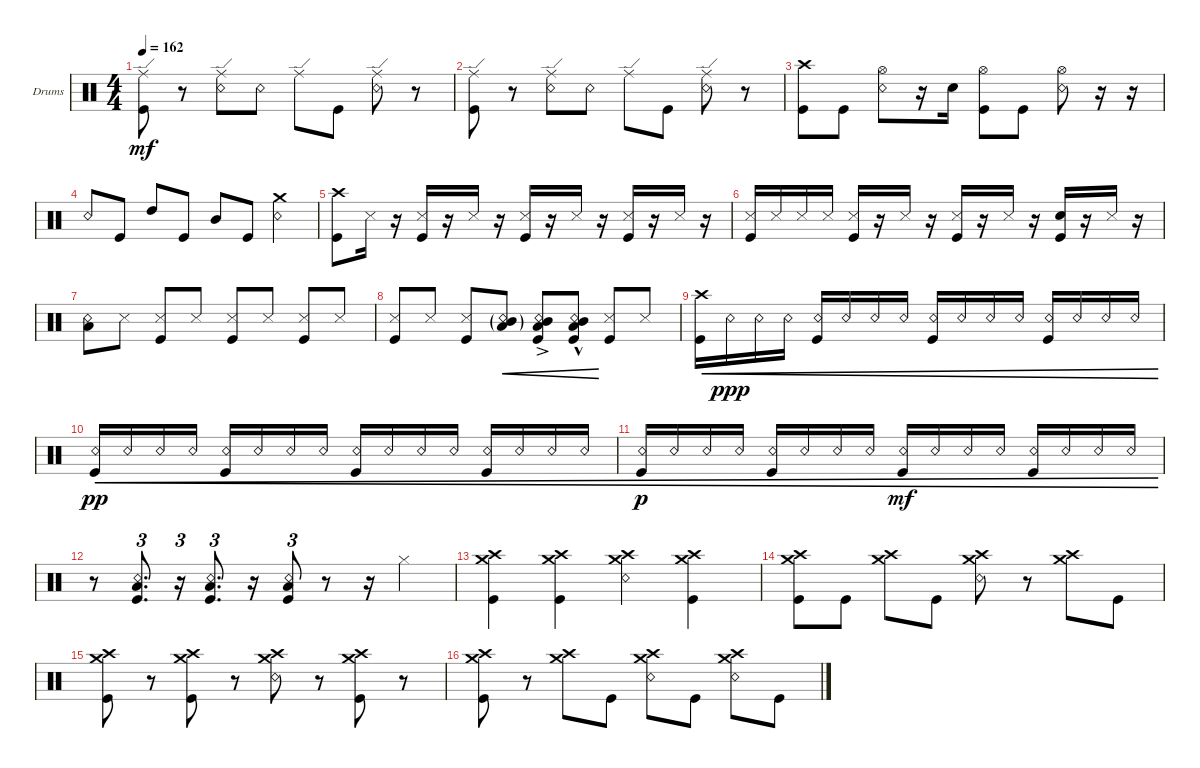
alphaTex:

\defaultSystemsLayout 4
\bracketExtendMode groupsimilarinstruments
\firstSystemTrackNameOrientation horizontal
\otherSystemsTrackNameOrientation horizontal
\track ("Drumkit" "Drums") {instrument percussion}
\staff {score}
\articulation defaults
\ts (4 4)
\tempo 162
\clef neutral
\ks c
("Ride (edge)" "Kick (hit)").8{dy mf} r.8 ("Ride (edge)" "Snare (rim shot)").8 "Snare (rim shot)".8 "Ride (edge)".8 "Kick (hit)".8 ("Snare (rim shot)" "Ride (edge)").8 r.8 |
("Ride (edge)" "Kick (hit)").8 r.8 ("Ride (edge)" "Snare (rim shot)").8 "Snare (rim shot)".8 "Ride (edge)".8 "Kick (hit)".8 ("Snare (rim shot)" "Ride (edge)").8 r.8 |
("Kick (hit)" "Crash high (hit)").8 "Kick (hit)".8 ("Snare (rim shot)" "Hi-Hat (open)").8 r.16 "Snare (hit) 2".16 ("Kick (hit)" "Hi-Hat (open)").8 "Kick (hit)".8 ("Snare (rim shot)" "Hi-Hat (open)").8 r.16 r.16 |
"Snare (rim shot)".8 "Kick (hit)".8 "High Tom (hit)".8 "Kick (hit)".8 "Mid Tom (hit)".8 "Kick (hit)".8 ("Crash medium (hit)" "Snare (rim shot)").4 |
("Kick (hit)" "Crash high (hit)").8 "Snare (side stick) 3".16 r.16 ("Snare (side stick) 3" "Kick (hit)").16 r.16 "Snare (side stick) 3".16 r.16 ("Snare (side stick) 3" "Kick (hit)").16 r.16 "Snare (side stick) 3".16 r.16 ("Snare (side stick) 3" "Kick (hit)").16 r.16 "Snare (side stick) 3".16 r.16 |
("Snare (side stick) 3" "Kick (hit)").16 "Snare (side stick) 3".16 "Snare (side stick) 3".16 "Snare (side stick) 3".16 ("Snare (side stick) 3" "Kick (hit)").16 r.16 "Snare (side stick) 3".16 r.16 ("Snare (side stick) 3" "Kick (hit)").16 r.16 "Snare (side stick) 3".16 r.16 ("Snare (hit) 2" "Kick (hit)").16 r.16 "Snare (side stick) 3".16 r.16 |
("Low Tom (hit)" "Snare (rim shot)").8 "Snare (side stick) 3".8 ("Snare (side stick) 3" "Kick (hit)").8 "Snare (side stick) 3".8 ("Snare (side stick) 3" "Kick (hit)").8 "Snare (side stick) 3".8 ("Snare (side stick) 3" "Kick (hit)").8 "Snare (side stick) 3".8 |
("Snare (side stick) 3" "Kick (hit)").8 "Snare (side stick) 3".8 ("Snare (side stick) 3" "Kick (hit)").8 ("Snare (rim shot)"{g} "Low Tom (hit)"{g} "Mid Tom (hit)"{g}).8{cre} ("Snare (rim shot)"{ac} "Kick (hit)"{ac} "Low Tom (hit)"{ac} "Mid Tom (hit)"{ac}).8{cre} ("Snare (rim shot)"{hac} "Low Tom (hit)"{hac} "Mid Tom (hit)"{hac} "Kick (hit)"{hac}).8{cre} ("Snare (side stick) 3" "Kick (hit)").8 "Snare (side stick) 3".8 |
("Kick (hit)" "Crash high (hit)").16{cre} "Snare (rim shot)".16{cre dy ppp} "Snare (rim shot)".16{cre} "Snare (rim shot)".16{cre} ("Snare (rim shot)" "Kick (hit)").16{cre} "Snare (rim shot)".16{cre} "Snare (rim shot)".16{cre} "Snare (rim shot)".16{cre} ("Snare (rim shot)" "Kick (hit)").16{cre} "Snare (rim shot)".16{cre} "Snare (rim shot)".16{cre} "Snare (rim shot)".16{cre} ("Snare (rim shot)" "Kick (hit)").16{cre} "Snare (rim shot)".16{cre} "Snare (rim shot)".16{cre} "Snare (rim shot)".16{cre} |
("Snare (rim shot)" "Kick (hit)").16{cre dy pp} "Snare (rim shot)".16{cre} "Snare (rim shot)".16{cre} "Snare (rim shot)".16{cre} ("Snare (rim shot)" "Kick (hit)").16{cre} "Snare (rim shot)".16{cre} "Snare (rim shot)".16{cre} "Snare (rim shot)".16{cre} ("Snare (rim shot)" "Kick (hit)").16{cre} "Snare (rim shot)".16{cre} "Snare (rim shot)".16{cre} "Snare (rim shot)".16{cre} ("Snare (rim shot)" "Kick (hit)").16{cre} "Snare (rim shot)".16{cre} "Snare (rim shot)".16{cre} "Snare (rim shot)".16{cre} |
("Snare (rim shot)" "Kick (hit)").16{cre dy p} "Snare (rim shot)".16{cre} "Snare (rim shot)".16{cre} "Snare (rim shot)".16{cre} ("Snare (rim shot)" "Kick (hit)").16{cre} "Snare (rim shot)".16{cre} "Snare (rim shot)".16{cre} "Snare (rim shot)".16{cre} ("Snare (rim shot)" "Kick (hit)").16{cre dy mf} "Snare (rim shot)".16{cre} "Snare (rim shot)".16{cre} "Snare (rim shot)".16{cre} ("Snare (rim shot)" "Kick (hit)").16{cre} "Snare (rim shot)".16{cre} "Snare (rim shot)".16{cre} "Snare (rim shot)".16{cre} |
r.8 ("Kick (hit)" "Snare (rim shot)" "Low Tom (hit)").8{d tu (3 2)} r.16{tu (3 2)} ("Kick (hit)" "Snare (rim shot)" "Low Tom (hit)").8{d tu (3 2)} r.16 ("Kick (hit)" "Snare (rim shot)" "Low Tom (hit)").8{tu (3 2)} r.8 r.16 "Hi-Hat (closed)".4 |
("Kick (hit)" "Crash high (hit)" "Crash medium (hit)").4 ("Kick (hit)" "Crash high (hit)" "Crash medium (hit)").4 ("Snare (rim shot)" "Crash high (hit)" "Crash medium (hit)").4 ("Kick (hit)" "Crash high (hit)" "Crash medium (hit)").4 |
("Kick (hit)" "Crash high (hit)" "Crash medium (hit)").8 "Kick (hit)".8 ("Crash high (hit)" "Crash medium (hit)").8 "Kick (hit)".8 ("Snare (rim shot)" "Crash high (hit)" "Crash medium (hit)").8 r.8 ("Crash high (hit)" "Crash medium (hit)").8 "Kick (hit)".8 |
("Kick (hit)" "Crash high (hit)" "Crash medium (hit)").8 r.8 ("Kick (hit)" "Crash high (hit)" "Crash medium (hit)").8 r.8 ("Snare (rim shot)" "Crash high (hit)" "Crash medium (hit)").8 r.8 ("Kick (hit)" "Crash high (hit)" "Crash medium (hit)").8 r.8 |
("Kick (hit)" "Crash high (hit)" "Crash medium (hit)").8 r.8 ("Crash high (hit)" "Crash medium (hit)").8 "Kick (hit)".8 ("Snare (rim shot)" "Crash high (hit)" "Crash medium (hit)").8 "Kick (hit)".8 ("Snare (rim shot)" "Crash high (hit)" "Crash medium (hit)").8 "Kick (hit)".8
